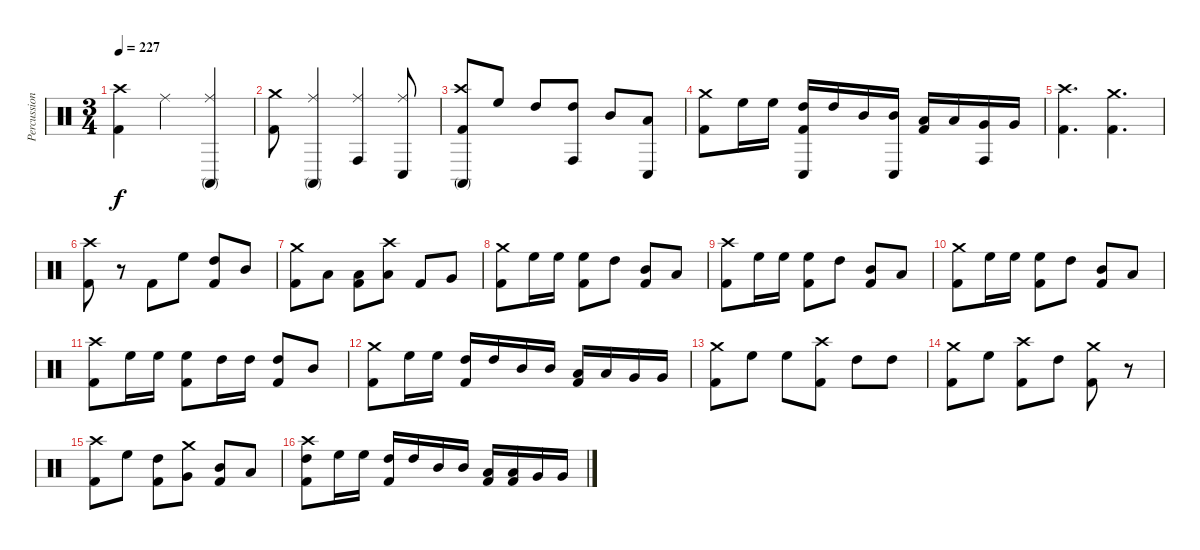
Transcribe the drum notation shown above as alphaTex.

\track ("Percussion" "Percussion") {instrument percussion}
\staff {score}
\articulation defaults
\ts (3 4)
\tempo 227
\clef neutral
\ks c
("Crash high (hit)" "Kick (hit) 2").4{dy f} "Ride (middle)".4 ("Ride (middle)" "Conga high (mute)").4 |
("Crash medium (hit)" "Kick (hit) 2").8 ("Ride (middle)" "Conga high (mute)").4 ("Ride (middle)" "Conga high (hit)").4 ("Ride (middle)" "Conga low (hit)").8 |
("Crash high (hit)" "Conga high (mute)" "Kick (hit) 2").8 "High Floor Tom (hit)".8 "High Tom (hit)".8 ("Conga high (hit)" "High Tom (hit)").8 "Mid Tom (hit)".8 ("Conga low (hit)" "Low Tom (hit)").8 |
("Crash medium (hit)" "Kick (hit) 2").8 "High Floor Tom (hit)".16 "High Floor Tom (hit)".16 ("Conga low (hit)" "High Tom (hit)" "Kick (hit) 2").16 "High Tom (hit)".16 "Mid Tom (hit)".16 ("Conga low (hit)" "Mid Tom (hit)").16 ("Low Tom (hit)" "Kick (hit) 2").16 "Low Tom (hit)".16 ("Conga high (hit)" "Very Low Tom (hit)").16 "Very Low Tom (hit)".16 |
("Crash high (hit)" "Kick (hit) 2").4{d} ("Crash medium (hit)" "Kick (hit) 2").4{d} |
("Crash high (hit)" "Kick (hit) 2").8 r.8 "Kick (hit) 2".8 "High Floor Tom (hit)".8 ("High Tom (hit)" "Kick (hit) 2").8 "Mid Tom (hit)".8 |
("Crash medium (hit)" "Kick (hit) 2").8 "Low Tom (hit)".8 ("Low Tom (hit)" "Kick (hit) 2").8 ("Crash high (hit)" "Low Tom (hit)").8 "Kick (hit) 2".8 "Very Low Tom (hit)".8 |
("Crash medium (hit)" "Kick (hit) 2").8 "High Floor Tom (hit)".16 "High Floor Tom (hit)".16 ("High Floor Tom (hit)" "Kick (hit) 2").8 "High Tom (hit)".8 ("Mid Tom (hit)" "Kick (hit) 2").8 "Low Tom (hit)".8 |
("Crash high (hit)" "Kick (hit) 2").8 "High Floor Tom (hit)".16 "High Floor Tom (hit)".16 ("High Floor Tom (hit)" "Kick (hit) 2").8 "High Tom (hit)".8 ("Mid Tom (hit)" "Kick (hit) 2").8 "Low Tom (hit)".8 |
("Crash medium (hit)" "Kick (hit) 2").8 "High Floor Tom (hit)".16 "High Floor Tom (hit)".16 ("High Floor Tom (hit)" "Kick (hit) 2").8 "High Tom (hit)".8 ("Mid Tom (hit)" "Kick (hit) 2").8 "Low Tom (hit)".8 |
("Crash high (hit)" "Kick (hit) 2").8 "High Floor Tom (hit)".16 "High Floor Tom (hit)".16 ("High Floor Tom (hit)" "Kick (hit) 2").8 "High Tom (hit)".16 "High Tom (hit)".16 ("High Tom (hit)" "Kick (hit) 2").8 "Mid Tom (hit)".8 |
("Crash medium (hit)" "Kick (hit) 2").8 "High Floor Tom (hit)".16 "High Floor Tom (hit)".16 ("High Tom (hit)" "Kick (hit) 2").16 "High Tom (hit)".16 "Mid Tom (hit)".16 "Mid Tom (hit)".16 ("Low Tom (hit)" "Kick (hit) 2").16 "Low Tom (hit)".16 "Very Low Tom (hit)".16 "Very Low Tom (hit)".16 |
("Crash medium (hit)" "Kick (hit) 2").8 "High Floor Tom (hit)".8 "High Floor Tom (hit)".8 ("Crash high (hit)" "Kick (hit) 2").8 "High Tom (hit)".8 "High Tom (hit)".8 |
("Crash medium (hit)" "Kick (hit) 2").8 "High Floor Tom (hit)".8 ("Crash high (hit)" "Kick (hit) 2").8 "High Tom (hit)".8 ("Crash medium (hit)" "Kick (hit) 2").8 r.8 |
("Crash high (hit)" "Kick (hit) 2").8 "High Floor Tom (hit)".8 ("High Tom (hit)" "Kick (hit) 2").8 ("Crash medium (hit)" "Very Low Tom (hit)").8 ("Mid Tom (hit)" "Kick (hit) 2").8 "Low Tom (hit)".8 |
("Crash high (hit)" "High Tom (hit)" "Kick (hit) 2").8 "High Floor Tom (hit)".16 "High Floor Tom (hit)".16 ("High Tom (hit)" "Kick (hit) 2").16 "High Tom (hit)".16 "Mid Tom (hit)".16 "Mid Tom (hit)".16 ("Low Tom (hit)" "Kick (hit) 2").16 ("Low Tom (hit)" "Kick (hit) 2").16 "Very Low Tom (hit)".16 "Very Low Tom (hit)".16
